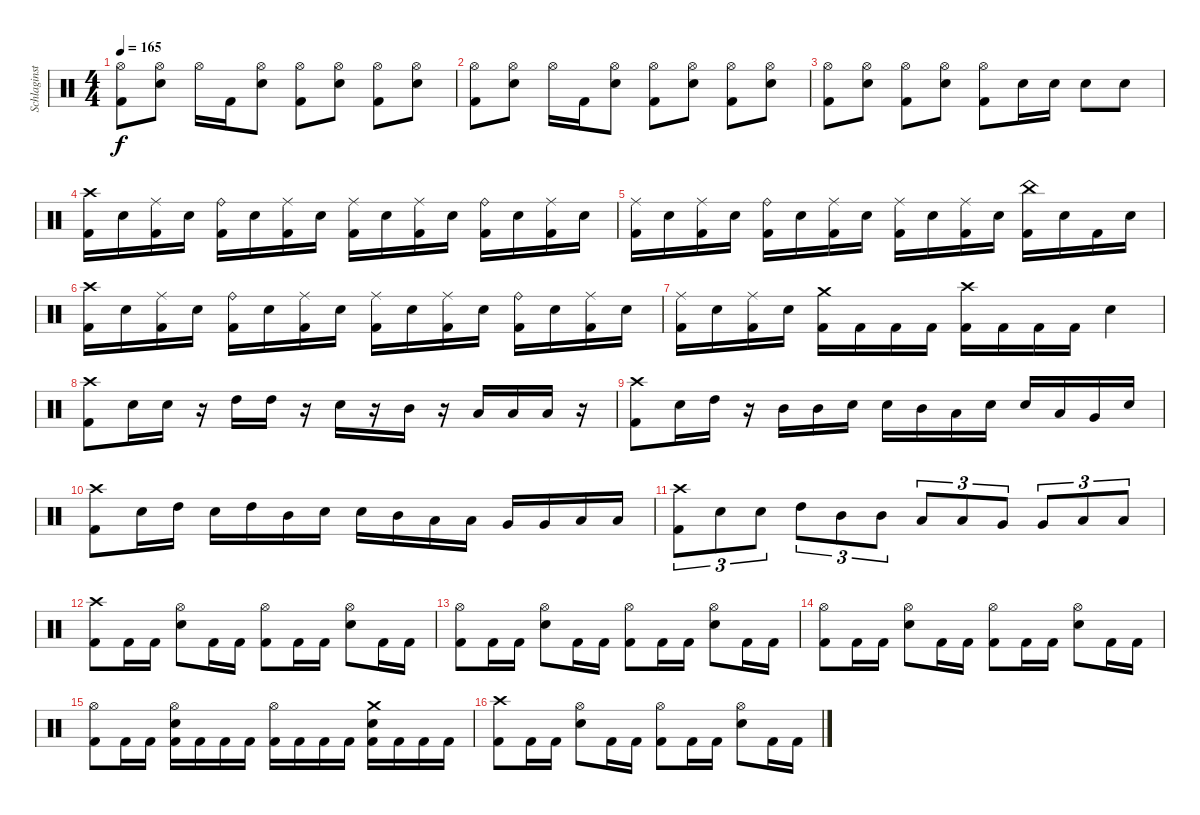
\track ("Schlaginstrumente - Auswahl" "Schlaginst") {instrument percussion}
\staff {score}
\articulation defaults
\ts (4 4)
\tempo 165
\clef neutral
\ks c
("Hi-Hat (open)" "Kick (hit) 2").8{dy f} ("Hi-Hat (open)" "Snare (hit) 2").8 "Hi-Hat (open)".16 "Kick (hit) 2".16 ("Hi-Hat (open)" "Snare (hit) 2").8 ("Hi-Hat (open)" "Kick (hit) 2").8 ("Hi-Hat (open)" "Snare (hit) 2").8 ("Hi-Hat (open)" "Kick (hit) 2").8 ("Hi-Hat (open)" "Snare (hit) 2").8 |
("Hi-Hat (open)" "Kick (hit) 2").8 ("Hi-Hat (open)" "Snare (hit) 2").8 "Hi-Hat (open)".16 "Kick (hit) 2".16 ("Hi-Hat (open)" "Snare (hit) 2").8 ("Hi-Hat (open)" "Kick (hit) 2").8 ("Hi-Hat (open)" "Snare (hit) 2").8 ("Hi-Hat (open)" "Kick (hit) 2").8 ("Hi-Hat (open)" "Snare (hit) 2").8 |
("Hi-Hat (open)" "Kick (hit) 2").8 ("Hi-Hat (open)" "Snare (hit) 2").8 ("Hi-Hat (open)" "Kick (hit) 2").8 ("Hi-Hat (open)" "Snare (hit) 2").8 ("Hi-Hat (open)" "Kick (hit) 2").8 "Snare (hit) 2".16 "Snare (hit) 2".16 "Snare (hit) 2".8 "Snare (hit) 2".8 |
("Crash high (hit)" "Kick (hit) 2").16 "Snare (hit) 2".16 ("Ride (middle)" "Kick (hit) 2").16 "Snare (hit) 2".16 ("Ride (bell)" "Kick (hit) 2").16 "Snare (hit) 2".16 ("Ride (middle)" "Kick (hit) 2").16 "Snare (hit) 2".16 ("Ride (middle)" "Kick (hit) 2").16 "Snare (hit) 2".16 ("Ride (middle)" "Kick (hit) 2").16 "Snare (hit) 2".16 ("Ride (bell)" "Kick (hit) 2").16 "Snare (hit) 2".16 ("Ride (middle)" "Kick (hit) 2").16 "Snare (hit) 2".16 |
("Ride (middle)" "Kick (hit) 2").16 "Snare (hit) 2".16 ("Ride (middle)" "Kick (hit) 2").16 "Snare (hit) 2".16 ("Ride (bell)" "Kick (hit) 2").16 "Snare (hit) 2".16 ("Ride (middle)" "Kick (hit) 2").16 "Snare (hit) 2".16 ("Ride (middle)" "Kick (hit) 2").16 "Snare (hit) 2".16 ("Ride (middle)" "Kick (hit) 2").16 "Snare (hit) 2".16 ("China (hit)" "Kick (hit) 2").16 "Snare (hit) 2".16 "Kick (hit) 2".16 "Snare (hit) 2".16 |
("Crash high (hit)" "Kick (hit) 2").16 "Snare (hit) 2".16 ("Ride (middle)" "Kick (hit) 2").16 "Snare (hit) 2".16 ("Ride (bell)" "Kick (hit) 2").16 "Snare (hit) 2".16 ("Ride (middle)" "Kick (hit) 2").16 "Snare (hit) 2".16 ("Ride (middle)" "Kick (hit) 2").16 "Snare (hit) 2".16 ("Ride (middle)" "Kick (hit) 2").16 "Snare (hit) 2".16 ("Ride (bell)" "Kick (hit) 2").16 "Snare (hit) 2".16 ("Ride (middle)" "Kick (hit) 2").16 "Snare (hit) 2".16 |
("Ride (middle)" "Kick (hit) 2").16 "Snare (hit) 2".16 ("Ride (middle)" "Kick (hit) 2").16 "Snare (hit) 2".16 ("Crash medium (hit)" "Kick (hit) 2").16 "Kick (hit) 2".16 "Kick (hit) 2".16 "Kick (hit) 2".16 ("Crash high (hit)" "Kick (hit) 2").16 "Kick (hit) 2".16 "Kick (hit) 2".16 "Kick (hit) 2".16 "Snare (hit) 2".4 |
("Crash high (hit)" "Kick (hit) 2").8 "Snare (hit) 2".16 "Snare (hit) 2".16 r.16 "High Tom (hit)".16 "High Tom (hit)".16 r.16 "Snare (hit) 2".16 r.16 "Mid Tom (hit)".16 r.16 "Low Tom (hit)".16 "Low Tom (hit)".16 "Low Tom (hit)".16 r.16 |
("Crash high (hit)" "Kick (hit) 2").8 "Snare (hit) 2".16 "High Tom (hit)".16 r.16 "Mid Tom (hit)".16 "Mid Tom (hit)".16 "Snare (hit) 2".16 "Snare (hit) 2".16 "Mid Tom (hit)".16 "Low Tom (hit)".16 "Snare (hit) 2".16 "Snare (hit) 2".16 "Low Tom (hit)".16 "Very Low Tom (hit)".16 "Snare (hit) 2".16 |
("Crash high (hit)" "Kick (hit) 2").8 "Snare (hit) 2".16 "High Tom (hit)".16 "Snare (hit) 2".16 "High Tom (hit)".16 "Mid Tom (hit)".16 "Snare (hit) 2".16 "Snare (hit) 2".16 "Mid Tom (hit)".16 "Low Tom (hit)".16 "Low Tom (hit)".16 "Very Low Tom (hit)".16 "Very Low Tom (hit)".16 "Low Floor Tom (hit)".16 "Low Floor Tom (hit)".16 |
("Crash high (hit)" "Kick (hit) 2").8{tu (3 2)} "Snare (hit) 2".8{tu (3 2)} "Snare (hit) 2".8{tu (3 2)} "High Tom (hit)".8{tu (3 2)} "Mid Tom (hit)".8{tu (3 2)} "Mid Tom (hit)".8{tu (3 2)} "Low Tom (hit)".8{tu (3 2)} "Low Tom (hit)".8{tu (3 2)} "Very Low Tom (hit)".8{tu (3 2)} "Very Low Tom (hit)".8{tu (3 2)} "Low Floor Tom (hit)".8{tu (3 2)} "Low Floor Tom (hit)".8{tu (3 2)} |
("Crash high (hit)" "Kick (hit) 2").8 "Kick (hit) 2".16 "Kick (hit) 2".16 ("Hi-Hat (open)" "Snare (hit) 2").8 "Kick (hit) 2".16 "Kick (hit) 2".16 ("Hi-Hat (open)" "Kick (hit) 2").8 "Kick (hit) 2".16 "Kick (hit) 2".16 ("Hi-Hat (open)" "Snare (hit) 2").8 "Kick (hit) 2".16 "Kick (hit) 2".16 |
("Hi-Hat (open)" "Kick (hit) 2").8 "Kick (hit) 2".16 "Kick (hit) 2".16 ("Hi-Hat (open)" "Snare (hit) 2").8 "Kick (hit) 2".16 "Kick (hit) 2".16 ("Hi-Hat (open)" "Kick (hit) 2").8 "Kick (hit) 2".16 "Kick (hit) 2".16 ("Hi-Hat (open)" "Snare (hit) 2").8 "Kick (hit) 2".16 "Kick (hit) 2".16 |
("Hi-Hat (open)" "Kick (hit) 2").8 "Kick (hit) 2".16 "Kick (hit) 2".16 ("Hi-Hat (open)" "Snare (hit) 2").8 "Kick (hit) 2".16 "Kick (hit) 2".16 ("Hi-Hat (open)" "Kick (hit) 2").8 "Kick (hit) 2".16 "Kick (hit) 2".16 ("Hi-Hat (open)" "Snare (hit) 2").8 "Kick (hit) 2".16 "Kick (hit) 2".16 |
("Hi-Hat (open)" "Kick (hit) 2").8 "Kick (hit) 2".16 "Kick (hit) 2".16 ("Hi-Hat (open)" "Snare (hit) 2" "Kick (hit) 2").16 "Kick (hit) 2".16 "Kick (hit) 2".16 "Kick (hit) 2".16 ("Hi-Hat (open)" "Kick (hit) 2").16 "Kick (hit) 2".16 "Kick (hit) 2".16 "Kick (hit) 2".16 ("Crash medium (hit)" "Snare (hit) 2" "Kick (hit) 2").16 "Kick (hit) 2".16 "Kick (hit) 2".16 "Kick (hit) 2".16 |
("Crash high (hit)" "Kick (hit) 2").8 "Kick (hit) 2".16 "Kick (hit) 2".16 ("Hi-Hat (open)" "Snare (hit) 2").8 "Kick (hit) 2".16 "Kick (hit) 2".16 ("Hi-Hat (open)" "Kick (hit) 2").8 "Kick (hit) 2".16 "Kick (hit) 2".16 ("Hi-Hat (open)" "Snare (hit) 2").8 "Kick (hit) 2".16 "Kick (hit) 2".16
